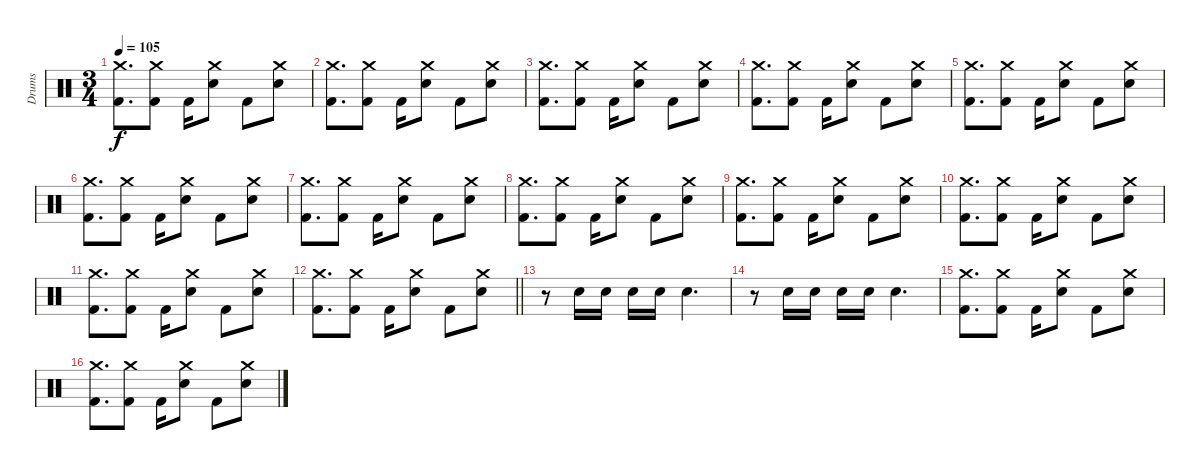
\track ("Drums" "Drums") {instrument percussion}
\staff {score}
\articulation defaults
\ts (3 4)
\tempo 105
\clef neutral
\ks c
("Crash medium (hit)" "Kick (hit) 2").8{d dy f} ("Crash medium (hit)" "Kick (hit) 2").8 "Kick (hit) 2".16 ("Crash medium (hit)" "Electric Snare (hit)").8 "Kick (hit) 2".8 ("Crash medium (hit)" "Electric Snare (hit)").8 |
("Crash medium (hit)" "Kick (hit) 2").8{d} ("Crash medium (hit)" "Kick (hit) 2").8 "Kick (hit) 2".16 ("Crash medium (hit)" "Electric Snare (hit)").8 "Kick (hit) 2".8 ("Crash medium (hit)" "Electric Snare (hit)").8 |
("Crash medium (hit)" "Kick (hit) 2").8{d} ("Crash medium (hit)" "Kick (hit) 2").8 "Kick (hit) 2".16 ("Crash medium (hit)" "Electric Snare (hit)").8 "Kick (hit) 2".8 ("Crash medium (hit)" "Electric Snare (hit)").8 |
("Crash medium (hit)" "Kick (hit) 2").8{d} ("Crash medium (hit)" "Kick (hit) 2").8 "Kick (hit) 2".16 ("Crash medium (hit)" "Electric Snare (hit)").8 "Kick (hit) 2".8 ("Crash medium (hit)" "Electric Snare (hit)").8 |
("Crash medium (hit)" "Kick (hit) 2").8{d} ("Crash medium (hit)" "Kick (hit) 2").8 "Kick (hit) 2".16 ("Crash medium (hit)" "Electric Snare (hit)").8 "Kick (hit) 2".8 ("Crash medium (hit)" "Electric Snare (hit)").8 |
("Crash medium (hit)" "Kick (hit) 2").8{d} ("Crash medium (hit)" "Kick (hit) 2").8 "Kick (hit) 2".16 ("Crash medium (hit)" "Electric Snare (hit)").8 "Kick (hit) 2".8 ("Crash medium (hit)" "Electric Snare (hit)").8 |
("Crash medium (hit)" "Kick (hit) 2").8{d} ("Crash medium (hit)" "Kick (hit) 2").8 "Kick (hit) 2".16 ("Crash medium (hit)" "Electric Snare (hit)").8 "Kick (hit) 2".8 ("Crash medium (hit)" "Electric Snare (hit)").8 |
("Crash medium (hit)" "Kick (hit) 2").8{d} ("Crash medium (hit)" "Kick (hit) 2").8 "Kick (hit) 2".16 ("Crash medium (hit)" "Electric Snare (hit)").8 "Kick (hit) 2".8 ("Crash medium (hit)" "Electric Snare (hit)").8 |
("Crash medium (hit)" "Kick (hit) 2").8{d} ("Crash medium (hit)" "Kick (hit) 2").8 "Kick (hit) 2".16 ("Crash medium (hit)" "Electric Snare (hit)").8 "Kick (hit) 2".8 ("Crash medium (hit)" "Electric Snare (hit)").8 |
("Crash medium (hit)" "Kick (hit) 2").8{d} ("Crash medium (hit)" "Kick (hit) 2").8 "Kick (hit) 2".16 ("Crash medium (hit)" "Electric Snare (hit)").8 "Kick (hit) 2".8 ("Crash medium (hit)" "Electric Snare (hit)").8 |
("Crash medium (hit)" "Kick (hit) 2").8{d} ("Crash medium (hit)" "Kick (hit) 2").8 "Kick (hit) 2".16 ("Crash medium (hit)" "Electric Snare (hit)").8 "Kick (hit) 2".8 ("Crash medium (hit)" "Electric Snare (hit)").8 |
\barLineRight lightlight
("Crash medium (hit)" "Kick (hit) 2").8{d} ("Crash medium (hit)" "Kick (hit) 2").8 "Kick (hit) 2".16 ("Crash medium (hit)" "Electric Snare (hit)").8 "Kick (hit) 2".8 ("Crash medium (hit)" "Electric Snare (hit)").8 |
r.8 "Electric Snare (hit)".16 "Electric Snare (hit)".16 "Electric Snare (hit)".16 "Electric Snare (hit)".16 "Electric Snare (hit)".4{d} |
r.8 "Electric Snare (hit)".16 "Electric Snare (hit)".16 "Electric Snare (hit)".16 "Electric Snare (hit)".16 "Electric Snare (hit)".4{d} |
("Crash medium (hit)" "Kick (hit) 2").8{d} ("Crash medium (hit)" "Kick (hit) 2").8 "Kick (hit) 2".16 ("Crash medium (hit)" "Electric Snare (hit)").8 "Kick (hit) 2".8 ("Crash medium (hit)" "Electric Snare (hit)").8 |
("Crash medium (hit)" "Kick (hit) 2").8{d} ("Crash medium (hit)" "Kick (hit) 2").8 "Kick (hit) 2".16 ("Crash medium (hit)" "Electric Snare (hit)").8 "Kick (hit) 2".8 ("Crash medium (hit)" "Electric Snare (hit)").8
